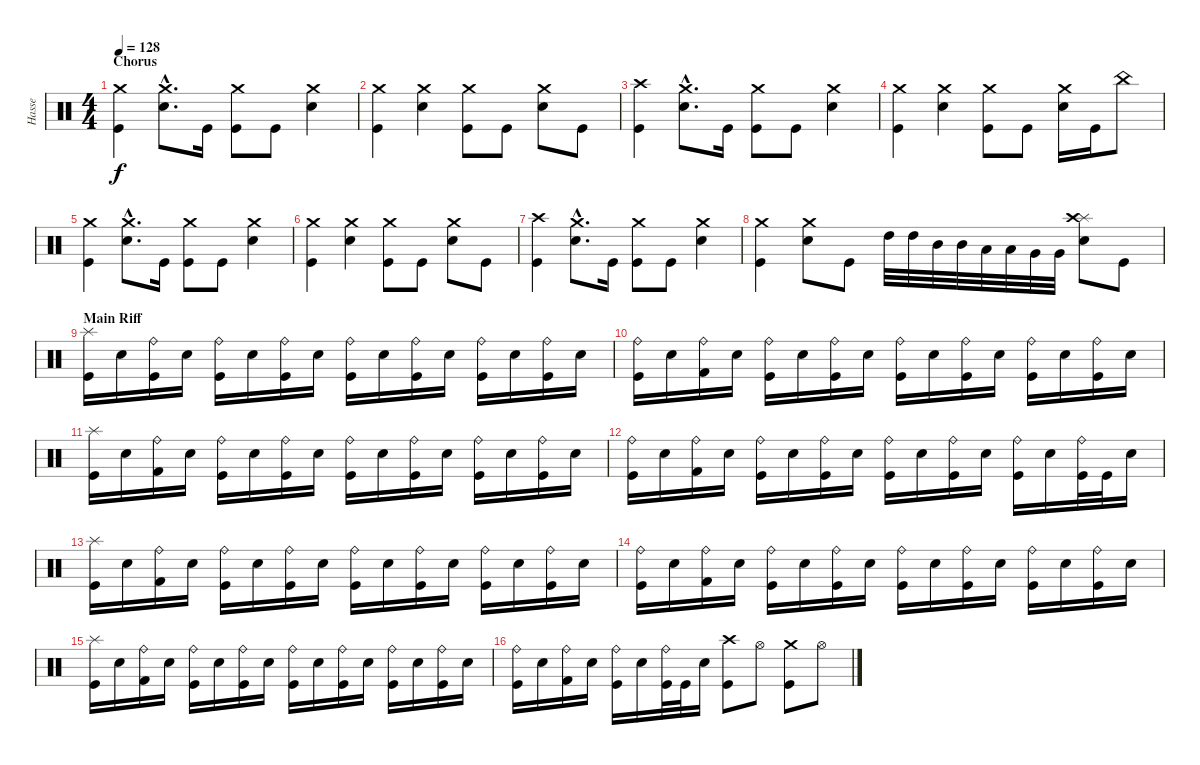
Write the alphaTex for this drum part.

\track ("Hasse" "Hasse") {instrument percussion}
\staff {score}
\articulation defaults
\ts (4 4)
\section ("" "Chorus")
\tempo 128
\clef neutral
\ks c
("Crash medium (hit)" "Kick (hit)").4{dy f} ("Crash medium (hit)"{hac} "Snare (hit) 2"{hac}).8{d} "Kick (hit)".16 ("Crash medium (hit)" "Kick (hit)").8 "Kick (hit)".8 ("Crash medium (hit)" "Snare (hit) 2").4 |
("Crash medium (hit)" "Kick (hit)").4 ("Crash medium (hit)" "Snare (hit) 2").4 ("Crash medium (hit)" "Kick (hit)").8 "Kick (hit)".8 ("Crash medium (hit)" "Snare (hit) 2").8 "Kick (hit)".8 |
("Crash high (hit)" "Kick (hit)").4 ("Crash medium (hit)"{hac} "Snare (hit) 2"{hac}).8{d} "Kick (hit)".16 ("Crash medium (hit)" "Kick (hit)").8 "Kick (hit)".8 ("Crash medium (hit)" "Snare (hit) 2").4 |
("Crash medium (hit)" "Kick (hit)").4 ("Crash medium (hit)" "Snare (hit) 2").4 ("Crash medium (hit)" "Kick (hit)").8 "Kick (hit)".8 ("Crash medium (hit)" "Snare (hit) 2").16 "Kick (hit)".16 "China (hit)".8 |
("Crash medium (hit)" "Kick (hit)").4 ("Crash medium (hit)"{hac} "Snare (hit) 2"{hac}).8{d} "Kick (hit)".16 ("Crash medium (hit)" "Kick (hit)").8 "Kick (hit)".8 ("Crash medium (hit)" "Snare (hit) 2").4 |
("Crash medium (hit)" "Kick (hit)").4 ("Crash medium (hit)" "Snare (hit) 2").4 ("Crash medium (hit)" "Kick (hit)").8 "Kick (hit)".8 ("Crash medium (hit)" "Snare (hit) 2").8 "Kick (hit)".8 |
("Crash high (hit)" "Kick (hit)").4 ("Crash medium (hit)"{hac} "Snare (hit) 2"{hac}).8{d} "Kick (hit)".16 ("Crash medium (hit)" "Kick (hit)").8 "Kick (hit)".8 ("Crash medium (hit)" "Snare (hit) 2").4 |
("Crash medium (hit)" "Kick (hit)").4 ("Crash medium (hit)" "Snare (hit) 2").8 "Kick (hit)".8 "High Tom (hit)".32 "High Tom (hit)".32 "Mid Tom (hit)".32 "Mid Tom (hit)".32 "Low Tom (hit)".32 "Low Tom (hit)".32 "Very Low Tom (hit)".32 "Very Low Tom (hit)".32 ("Splash (hit)" "Crash high (hit)" "Snare (hit) 2").8 "Kick (hit)".8 |
\section ("" "Main Riff")
("Splash (hit)" "Kick (hit)").16 "Snare (hit) 2".16 ("Ride (bell)" "Kick (hit)").16 "Snare (hit) 2".16 ("Ride (bell)" "Kick (hit)").16 "Snare (hit) 2".16 ("Ride (bell)" "Kick (hit)").16 "Snare (hit) 2".16 ("Ride (bell)" "Kick (hit)").16 "Snare (hit) 2".16 ("Ride (bell)" "Kick (hit)").16 "Snare (hit) 2".16 ("Ride (bell)" "Kick (hit)").16 "Snare (hit) 2".16 ("Ride (bell)" "Kick (hit)").16 "Snare (hit) 2".16 |
("Ride (bell)" "Kick (hit)").16 "Snare (hit) 2".16 ("Ride (bell)" "Kick (hit) 2").16 "Snare (hit) 2".16 ("Ride (bell)" "Kick (hit)").16 "Snare (hit) 2".16 ("Ride (bell)" "Kick (hit)").16 "Snare (hit) 2".16 ("Ride (bell)" "Kick (hit)").16 "Snare (hit) 2".16 ("Ride (bell)" "Kick (hit)").16 "Snare (hit) 2".16 ("Ride (bell)" "Kick (hit)").16 "Snare (hit) 2".16 ("Ride (bell)" "Kick (hit)").16 "Snare (hit) 2".16 |
("Splash (hit)" "Kick (hit)").16 "Snare (hit) 2".16 ("Ride (bell)" "Kick (hit) 2").16 "Snare (hit) 2".16 ("Ride (bell)" "Kick (hit)").16 "Snare (hit) 2".16 ("Ride (bell)" "Kick (hit)").16 "Snare (hit) 2".16 ("Ride (bell)" "Kick (hit)").16 "Snare (hit) 2".16 ("Ride (bell)" "Kick (hit)").16 "Snare (hit) 2".16 ("Ride (bell)" "Kick (hit)").16 "Snare (hit) 2".16 ("Ride (bell)" "Kick (hit)").16 "Snare (hit) 2".16 |
("Ride (bell)" "Kick (hit)").16 "Snare (hit) 2".16 ("Ride (bell)" "Kick (hit) 2").16 "Snare (hit) 2".16 ("Ride (bell)" "Kick (hit)").16 "Snare (hit) 2".16 ("Ride (bell)" "Kick (hit)").16 "Snare (hit) 2".16 ("Ride (bell)" "Kick (hit)").16 "Snare (hit) 2".16 ("Ride (bell)" "Kick (hit)").16 "Snare (hit) 2".16 ("Ride (bell)" "Kick (hit)").16 "Snare (hit) 2".16 ("Ride (bell)" "Kick (hit)").32 "Kick (hit)".32 "Snare (hit) 2".16 |
("Splash (hit)" "Kick (hit)").16 "Snare (hit) 2".16 ("Ride (bell)" "Kick (hit) 2").16 "Snare (hit) 2".16 ("Ride (bell)" "Kick (hit)").16 "Snare (hit) 2".16 ("Ride (bell)" "Kick (hit)").16 "Snare (hit) 2".16 ("Ride (bell)" "Kick (hit)").16 "Snare (hit) 2".16 ("Ride (bell)" "Kick (hit)").16 "Snare (hit) 2".16 ("Ride (bell)" "Kick (hit)").16 "Snare (hit) 2".16 ("Ride (bell)" "Kick (hit)").16 "Snare (hit) 2".16 |
("Ride (bell)" "Kick (hit)").16 "Snare (hit) 2".16 ("Ride (bell)" "Kick (hit) 2").16 "Snare (hit) 2".16 ("Ride (bell)" "Kick (hit)").16 "Snare (hit) 2".16 ("Ride (bell)" "Kick (hit)").16 "Snare (hit) 2".16 ("Ride (bell)" "Kick (hit)").16 "Snare (hit) 2".16 ("Ride (bell)" "Kick (hit)").16 "Snare (hit) 2".16 ("Ride (bell)" "Kick (hit)").16 "Snare (hit) 2".16 ("Ride (bell)" "Kick (hit)").16 "Snare (hit) 2".16 |
("Splash (hit)" "Kick (hit)").16 "Snare (hit) 2".16 ("Ride (bell)" "Kick (hit) 2").16 "Snare (hit) 2".16 ("Ride (bell)" "Kick (hit)").16 "Snare (hit) 2".16 ("Ride (bell)" "Kick (hit)").16 "Snare (hit) 2".16 ("Ride (bell)" "Kick (hit)").16 "Snare (hit) 2".16 ("Ride (bell)" "Kick (hit)").16 "Snare (hit) 2".16 ("Ride (bell)" "Kick (hit)").16 "Snare (hit) 2".16 ("Ride (bell)" "Kick (hit)").16 "Snare (hit) 2".16 |
("Ride (bell)" "Kick (hit)").16 "Snare (hit) 2".16 ("Ride (bell)" "Kick (hit) 2").16 "Snare (hit) 2".16 ("Ride (bell)" "Kick (hit)").16 "Snare (hit) 2".16 ("Ride (bell)" "Kick (hit)").32 "Kick (hit)".32 "Snare (hit) 2".16 ("Crash high (hit)" "Kick (hit)").8 "Hi-Hat (open)".8 ("Crash medium (hit)" "Kick (hit)").8 "Hi-Hat (open)".8
